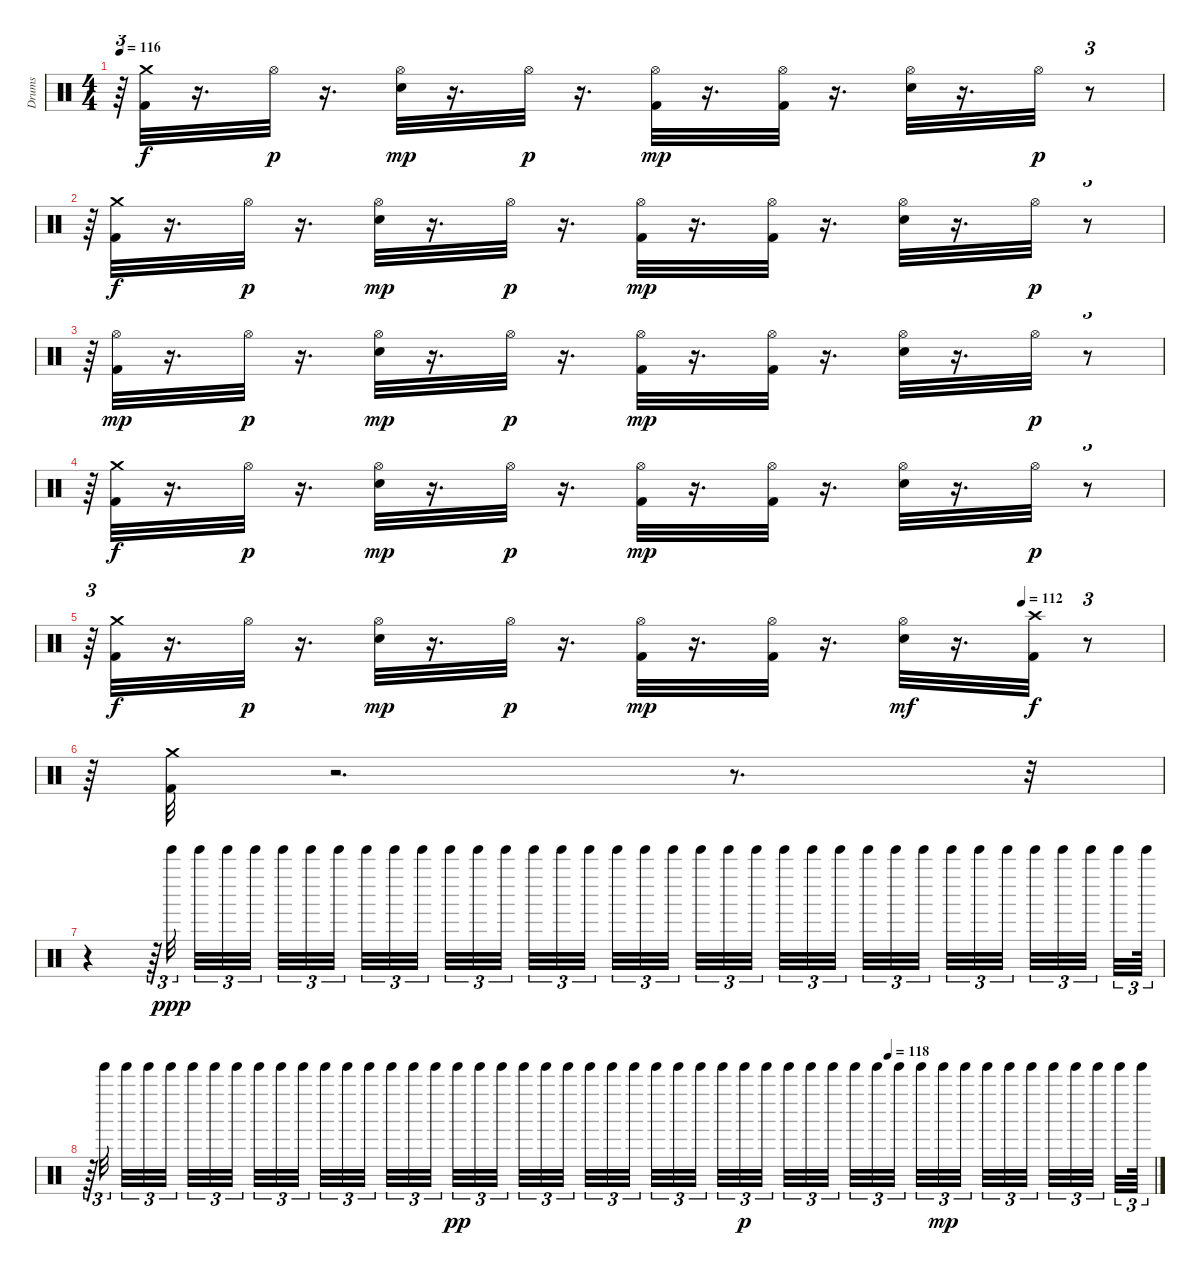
\track ("Drums" "Drums") {instrument percussion}
\staff {score}
\articulation defaults
\ts (4 4)
\tempo 116
\clef neutral
\ks c
r.64{tu (3 2) dy p} ("Crash medium (hit)" "Kick (hit) 2").32{dy f} r.16{d} "Hi-Hat (open)".32{dy p} r.16{d} ("Hi-Hat (open)" "Snare (hit) 2").32{dy mp} r.16{d} "Hi-Hat (open)".32{dy p} r.16{d} ("Kick (hit) 2" "Hi-Hat (open)").32{dy mp} r.16{d} ("Hi-Hat (open)" "Kick (hit) 2").32 r.16{d} ("Snare (hit) 2" "Hi-Hat (open)").32 r.16{d} "Hi-Hat (open)".32{dy p} r.8{tu (3 2)} |
r.64{tu (3 2)} ("Crash medium (hit)" "Kick (hit) 2").32{dy f} r.16{d} "Hi-Hat (open)".32{dy p} r.16{d} ("Hi-Hat (open)" "Snare (hit) 2").32{dy mp} r.16{d} "Hi-Hat (open)".32{dy p} r.16{d} ("Kick (hit) 2" "Hi-Hat (open)").32{dy mp} r.16{d} ("Hi-Hat (open)" "Kick (hit) 2").32 r.16{d} ("Snare (hit) 2" "Hi-Hat (open)").32 r.16{d} "Hi-Hat (open)".32{dy p} r.8{tu (3 2)} |
r.64{tu (3 2)} ("Kick (hit) 2" "Hi-Hat (open)").32{dy mp} r.16{d} "Hi-Hat (open)".32{dy p} r.16{d} ("Hi-Hat (open)" "Snare (hit) 2").32{dy mp} r.16{d} "Hi-Hat (open)".32{dy p} r.16{d} ("Kick (hit) 2" "Hi-Hat (open)").32{dy mp} r.16{d} ("Hi-Hat (open)" "Kick (hit) 2").32 r.16{d} ("Snare (hit) 2" "Hi-Hat (open)").32 r.16{d} "Hi-Hat (open)".32{dy p} r.8{tu (3 2)} |
r.64{tu (3 2)} ("Crash medium (hit)" "Kick (hit) 2").32{dy f} r.16{d} "Hi-Hat (open)".32{dy p} r.16{d} ("Hi-Hat (open)" "Snare (hit) 2").32{dy mp} r.16{d} "Hi-Hat (open)".32{dy p} r.16{d} ("Kick (hit) 2" "Hi-Hat (open)").32{dy mp} r.16{d} ("Hi-Hat (open)" "Kick (hit) 2").32 r.16{d} ("Snare (hit) 2" "Hi-Hat (open)").32 r.16{d} "Hi-Hat (open)".32{dy p} r.8{tu (3 2)} |
\tempo (112 0.86875)
r.64{tu (3 2)} ("Crash medium (hit)" "Kick (hit) 2").32{dy f} r.16{d} "Hi-Hat (open)".32{dy p} r.16{d} ("Hi-Hat (open)" "Snare (hit) 2").32{dy mp} r.16{d} "Hi-Hat (open)".32{dy p} r.16{d} ("Kick (hit) 2" "Hi-Hat (open)").32{dy mp} r.16{d} ("Hi-Hat (open)" "Kick (hit) 2").32 r.16{d} ("Hi-Hat (open)" "Snare (hit) 2").32{dy mf} r.16{d} ("Crash high (hit)" "Kick (hit) 2").32{dy f} r.8{tu (3 2)} |
r.64{tu (3 2)} ("Crash medium (hit)" "Kick (hit) 2").32 r.2{d} r.8{d} r.32{tu (3 2)} |
r.4 r.64{tu (3 2)} "Tinkle Bell (hit)".32{tu (3 2) dy ppp} "Tinkle Bell (hit)".32{tu (3 2)} "Tinkle Bell (hit)".32{tu (3 2)} "Tinkle Bell (hit)".32{tu (3 2)} "Tinkle Bell (hit)".32{tu (3 2)} "Tinkle Bell (hit)".32{tu (3 2)} "Tinkle Bell (hit)".32{tu (3 2)} "Tinkle Bell (hit)".32{tu (3 2)} "Tinkle Bell (hit)".32{tu (3 2)} "Tinkle Bell (hit)".32{tu (3 2)} "Tinkle Bell (hit)".32{tu (3 2)} "Tinkle Bell (hit)".32{tu (3 2)} "Tinkle Bell (hit)".32{tu (3 2)} "Tinkle Bell (hit)".32{tu (3 2)} "Tinkle Bell (hit)".32{tu (3 2)} "Tinkle Bell (hit)".32{tu (3 2)} "Tinkle Bell (hit)".32{tu (3 2)} "Tinkle Bell (hit)".32{tu (3 2)} "Tinkle Bell (hit)".32{tu (3 2)} "Tinkle Bell (hit)".32{tu (3 2)} "Tinkle Bell (hit)".32{tu (3 2)} "Tinkle Bell (hit)".32{tu (3 2)} "Tinkle Bell (hit)".32{tu (3 2)} "Tinkle Bell (hit)".32{tu (3 2)} "Tinkle Bell (hit)".32{tu (3 2)} "Tinkle Bell (hit)".32{tu (3 2)} "Tinkle Bell (hit)".32{tu (3 2)} "Tinkle Bell (hit)".32{tu (3 2)} "Tinkle Bell (hit)".32{tu (3 2)} "Tinkle Bell (hit)".32{tu (3 2)} "Tinkle Bell (hit)".32{tu (3 2)} "Tinkle Bell (hit)".32{tu (3 2)} "Tinkle Bell (hit)".32{tu (3 2)} "Tinkle Bell (hit)".32{tu (3 2)} "Tinkle Bell (hit)".32{tu (3 2)} "Tinkle Bell (hit)".64{tu (3 2)} |
\tempo (118 0.75)
r.64{tu (3 2)} "Tinkle Bell (hit)".32{tu (3 2)} "Tinkle Bell (hit)".32{tu (3 2)} "Tinkle Bell (hit)".32{tu (3 2)} "Tinkle Bell (hit)".32{tu (3 2)} "Tinkle Bell (hit)".32{tu (3 2)} "Tinkle Bell (hit)".32{tu (3 2)} "Tinkle Bell (hit)".32{tu (3 2)} "Tinkle Bell (hit)".32{tu (3 2)} "Tinkle Bell (hit)".32{tu (3 2)} "Tinkle Bell (hit)".32{tu (3 2)} "Tinkle Bell (hit)".32{tu (3 2)} "Tinkle Bell (hit)".32{tu (3 2)} "Tinkle Bell (hit)".32{tu (3 2)} "Tinkle Bell (hit)".32{tu (3 2)} "Tinkle Bell (hit)".32{tu (3 2)} "Tinkle Bell (hit)".32{tu (3 2)} "Tinkle Bell (hit)".32{tu (3 2) dy pp} "Tinkle Bell (hit)".32{tu (3 2)} "Tinkle Bell (hit)".32{tu (3 2)} "Tinkle Bell (hit)".32{tu (3 2)} "Tinkle Bell (hit)".32{tu (3 2)} "Tinkle Bell (hit)".32{tu (3 2)} "Tinkle Bell (hit)".32{tu (3 2)} "Tinkle Bell (hit)".32{tu (3 2)} "Tinkle Bell (hit)".32{tu (3 2)} "Tinkle Bell (hit)".32{tu (3 2)} "Tinkle Bell (hit)".32{tu (3 2)} "Tinkle Bell (hit)".32{tu (3 2)} "Tinkle Bell (hit)".32{tu (3 2)} "Tinkle Bell (hit)".32{tu (3 2) dy p} "Tinkle Bell (hit)".32{tu (3 2)} "Tinkle Bell (hit)".32{tu (3 2)} "Tinkle Bell (hit)".32{tu (3 2)} "Tinkle Bell (hit)".32{tu (3 2)} "Tinkle Bell (hit)".32{tu (3 2)} "Tinkle Bell (hit)".32{tu (3 2)} "Tinkle Bell (hit)".32{tu (3 2)} "Tinkle Bell (hit)".32{tu (3 2)} "Tinkle Bell (hit)".32{tu (3 2) dy mp} "Tinkle Bell (hit)".32{tu (3 2)} "Tinkle Bell (hit)".32{tu (3 2)} "Tinkle Bell (hit)".32{tu (3 2)} "Tinkle Bell (hit)".32{tu (3 2)} "Tinkle Bell (hit)".32{tu (3 2)} "Tinkle Bell (hit)".32{tu (3 2)} "Tinkle Bell (hit)".32{tu (3 2)} "Tinkle Bell (hit)".32{tu (3 2)} "Tinkle Bell (hit)".64{tu (3 2)}
